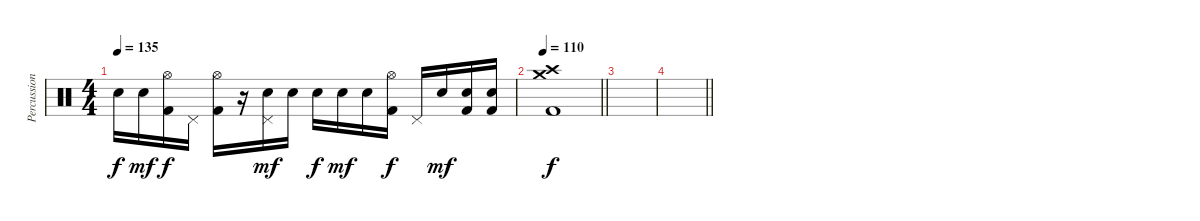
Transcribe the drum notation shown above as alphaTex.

\track ("Percussion" "Percussion") {instrument percussion}
\staff {score}
\articulation defaults
\ts (4 4)
\tempo 135
\clef neutral
\ks c "Electric Snare (hit)".16{dy f} "Electric Snare (hit)".16{dy mf}
("Hi-Hat (open)" "Kick (hit) 2").16{dy f} "Pedal Hi-Hat (hit)".16 ("Hi-Hat (open)" "Kick (hit) 2").16 r.16 ("Pedal Hi-Hat (hit)" "Electric Snare (hit)").16{dy mf} "Electric Snare (hit)".16 "Electric Snare (hit)".16{dy f} "Electric Snare (hit)".16{dy mf} "Electric Snare (hit)".16 ("Hi-Hat (open)" "Kick (hit) 2").16{dy f} "Pedal Hi-Hat (hit)".16 "Electric Snare (hit)".16{dy mf} ("Electric Snare (hit)" "Kick (hit) 2").16 ("Electric Snare (hit)" "Kick (hit) 2").16 |
\tempo 110
\barLineRight lightlight
("Crash high (hit)" "Crash medium (hit)" "Kick (hit) 2").1{dy f} |
|
\barLineRight lightlight
